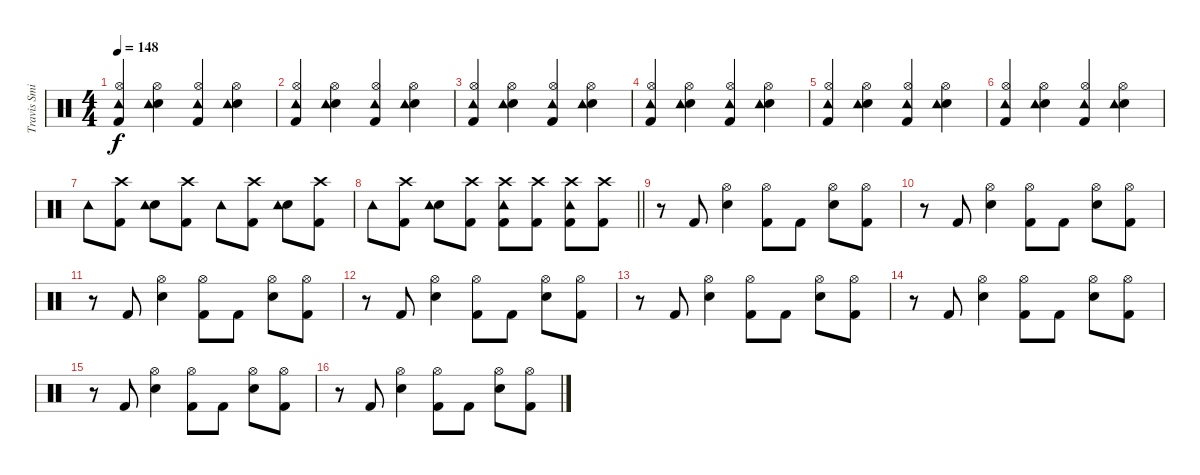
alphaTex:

\track ("Travis Smith" "Travis Smi") {instrument percussion}
\staff {score}
\articulation defaults
\ts (4 4)
\tempo 148
\clef neutral
\ks c
("Kick (hit) 2" "Hi-Hat (open)" "Tambourine (hit)").4{dy f} ("Snare (hit) 2" "Hi-Hat (open)" "Tambourine (hit)").4 ("Kick (hit) 2" "Hi-Hat (open)" "Tambourine (hit)").4 ("Snare (hit) 2" "Hi-Hat (open)" "Tambourine (hit)").4 |
("Kick (hit) 2" "Hi-Hat (open)" "Tambourine (hit)").4 ("Snare (hit) 2" "Hi-Hat (open)" "Tambourine (hit)").4 ("Kick (hit) 2" "Hi-Hat (open)" "Tambourine (hit)").4 ("Snare (hit) 2" "Hi-Hat (open)" "Tambourine (hit)").4 |
("Kick (hit) 2" "Hi-Hat (open)" "Tambourine (hit)").4 ("Snare (hit) 2" "Hi-Hat (open)" "Tambourine (hit)").4 ("Kick (hit) 2" "Hi-Hat (open)" "Tambourine (hit)").4 ("Snare (hit) 2" "Hi-Hat (open)" "Tambourine (hit)").4 |
("Kick (hit) 2" "Hi-Hat (open)" "Tambourine (hit)").4 ("Snare (hit) 2" "Hi-Hat (open)" "Tambourine (hit)").4 ("Kick (hit) 2" "Hi-Hat (open)" "Tambourine (hit)").4 ("Snare (hit) 2" "Hi-Hat (open)" "Tambourine (hit)").4 |
("Kick (hit) 2" "Hi-Hat (open)" "Tambourine (hit)").4 ("Snare (hit) 2" "Hi-Hat (open)" "Tambourine (hit)").4 ("Kick (hit) 2" "Hi-Hat (open)" "Tambourine (hit)").4 ("Snare (hit) 2" "Hi-Hat (open)" "Tambourine (hit)").4 |
("Kick (hit) 2" "Hi-Hat (open)" "Tambourine (hit)").4 ("Snare (hit) 2" "Hi-Hat (open)" "Tambourine (hit)").4 ("Kick (hit) 2" "Hi-Hat (open)" "Tambourine (hit)").4 ("Snare (hit) 2" "Hi-Hat (open)" "Tambourine (hit)").4 |
"Tambourine (hit)".8 ("Kick (hit) 2" "Crash high (hit)").8 ("Snare (hit) 2" "Tambourine (hit)").8 ("Kick (hit) 2" "Crash high (hit)").8 "Tambourine (hit)".8 ("Kick (hit) 2" "Crash high (hit)").8 ("Snare (hit) 2" "Tambourine (hit)").8 ("Kick (hit) 2" "Crash high (hit)").8 |
\barLineRight lightlight "Tambourine (hit)".8
("Kick (hit) 2" "Crash high (hit)").8 ("Snare (hit) 2" "Tambourine (hit)").8 ("Kick (hit) 2" "Crash high (hit)").8 ("Kick (hit) 2" "Crash high (hit)" "Tambourine (hit)").8 ("Kick (hit) 2" "Crash high (hit)").8 ("Kick (hit) 2" "Crash high (hit)" "Tambourine (hit)").8 ("Kick (hit) 2" "Crash high (hit)").8 |
r.8 "Kick (hit) 2".8 ("Snare (hit) 2" "Hi-Hat (open)").4 ("Kick (hit) 2" "Hi-Hat (open)").8 "Kick (hit) 2".8 ("Snare (hit) 2" "Hi-Hat (open)").8 ("Kick (hit) 2" "Hi-Hat (open)").8 |
r.8 "Kick (hit) 2".8 ("Snare (hit) 2" "Hi-Hat (open)").4 ("Kick (hit) 2" "Hi-Hat (open)").8 "Kick (hit) 2".8 ("Snare (hit) 2" "Hi-Hat (open)").8 ("Kick (hit) 2" "Hi-Hat (open)").8 |
r.8 "Kick (hit) 2".8 ("Snare (hit) 2" "Hi-Hat (open)").4 ("Kick (hit) 2" "Hi-Hat (open)").8 "Kick (hit) 2".8 ("Snare (hit) 2" "Hi-Hat (open)").8 ("Kick (hit) 2" "Hi-Hat (open)").8 |
r.8 "Kick (hit) 2".8 ("Snare (hit) 2" "Hi-Hat (open)").4 ("Kick (hit) 2" "Hi-Hat (open)").8 "Kick (hit) 2".8 ("Snare (hit) 2" "Hi-Hat (open)").8 ("Kick (hit) 2" "Hi-Hat (open)").8 |
r.8 "Kick (hit) 2".8 ("Snare (hit) 2" "Hi-Hat (open)").4 ("Kick (hit) 2" "Hi-Hat (open)").8 "Kick (hit) 2".8 ("Snare (hit) 2" "Hi-Hat (open)").8 ("Kick (hit) 2" "Hi-Hat (open)").8 |
r.8 "Kick (hit) 2".8 ("Snare (hit) 2" "Hi-Hat (open)").4 ("Kick (hit) 2" "Hi-Hat (open)").8 "Kick (hit) 2".8 ("Snare (hit) 2" "Hi-Hat (open)").8 ("Kick (hit) 2" "Hi-Hat (open)").8 |
r.8 "Kick (hit) 2".8 ("Snare (hit) 2" "Hi-Hat (open)").4 ("Kick (hit) 2" "Hi-Hat (open)").8 "Kick (hit) 2".8 ("Snare (hit) 2" "Hi-Hat (open)").8 ("Kick (hit) 2" "Hi-Hat (open)").8 |
r.8 "Kick (hit) 2".8 ("Snare (hit) 2" "Hi-Hat (open)").4 ("Kick (hit) 2" "Hi-Hat (open)").8 "Kick (hit) 2".8 ("Snare (hit) 2" "Hi-Hat (open)").8 ("Kick (hit) 2" "Hi-Hat (open)").8
